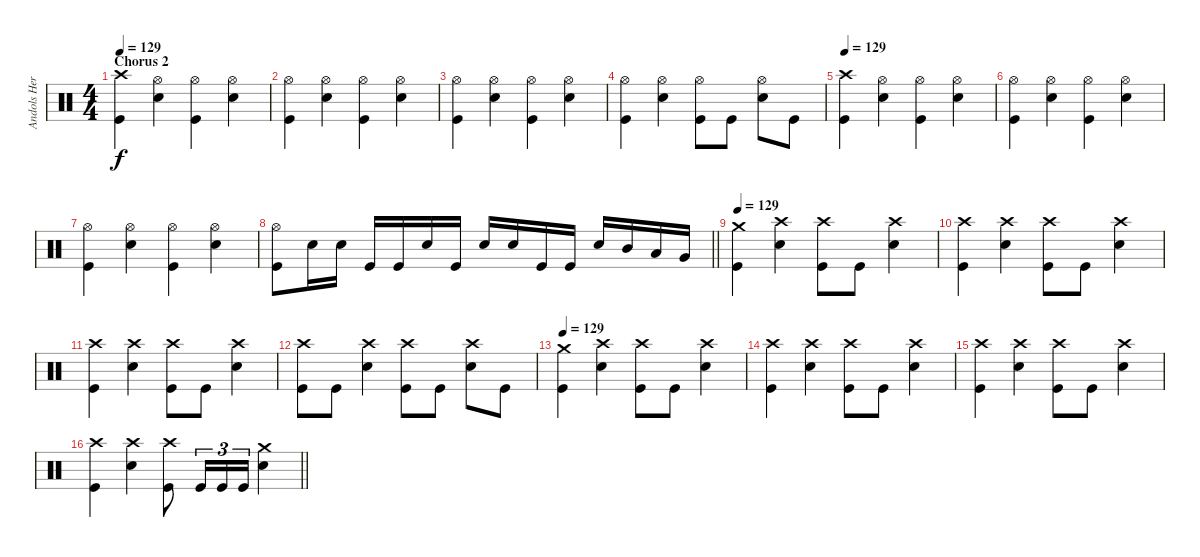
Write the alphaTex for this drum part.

\track ("Andols Herrick" "Andols Her") {instrument percussion}
\staff {score}
\articulation defaults
\ts (4 4)
\section ("" "Chorus 2")
\tempo 129
\clef neutral
\ks c
("Crash high (hit)" "Kick (hit)").4{dy f} ("Hi-Hat (open)" "Electric Snare (hit)").4 ("Hi-Hat (open)" "Kick (hit)").4 ("Hi-Hat (open)" "Electric Snare (hit)").4 |
("Hi-Hat (open)" "Kick (hit)").4 ("Hi-Hat (open)" "Electric Snare (hit)").4 ("Hi-Hat (open)" "Kick (hit)").4 ("Hi-Hat (open)" "Electric Snare (hit)").4 |
("Hi-Hat (open)" "Kick (hit)").4 ("Hi-Hat (open)" "Electric Snare (hit)").4 ("Hi-Hat (open)" "Kick (hit)").4 ("Hi-Hat (open)" "Electric Snare (hit)").4 |
("Hi-Hat (open)" "Kick (hit)").4 ("Hi-Hat (open)" "Electric Snare (hit)").4 ("Hi-Hat (open)" "Kick (hit)").8 "Kick (hit)".8 ("Hi-Hat (open)" "Electric Snare (hit)").8 "Kick (hit)".8 |
\tempo 129
("Crash high (hit)" "Kick (hit)").4 ("Hi-Hat (open)" "Electric Snare (hit)").4 ("Hi-Hat (open)" "Kick (hit)").4 ("Hi-Hat (open)" "Electric Snare (hit)").4 |
("Hi-Hat (open)" "Kick (hit)").4 ("Hi-Hat (open)" "Electric Snare (hit)").4 ("Hi-Hat (open)" "Kick (hit)").4 ("Hi-Hat (open)" "Electric Snare (hit)").4 |
("Hi-Hat (open)" "Kick (hit)").4 ("Hi-Hat (open)" "Electric Snare (hit)").4 ("Hi-Hat (open)" "Kick (hit)").4 ("Hi-Hat (open)" "Electric Snare (hit)").4 |
\barLineRight lightlight
("Hi-Hat (open)" "Kick (hit)").8 "Electric Snare (hit)".16 "Electric Snare (hit)".16 "Kick (hit)".16 "Kick (hit)".16 "Electric Snare (hit)".16 "Kick (hit)".16 "Electric Snare (hit)".16 "Electric Snare (hit)".16 "Kick (hit)".16 "Kick (hit)".16 "Electric Snare (hit)".16 "Mid Tom (hit)".16 "Low Tom (hit)".16 "Very Low Tom (hit)".16 |
\tempo 129
("Crash medium (hit)" "Kick (hit)").4 ("Crash high (hit)" "Electric Snare (hit)").4 ("Crash high (hit)" "Kick (hit)").8 "Kick (hit)".8 ("Crash high (hit)" "Electric Snare (hit)").4 |
("Crash high (hit)" "Kick (hit)").4 ("Crash high (hit)" "Electric Snare (hit)").4 ("Crash high (hit)" "Kick (hit)").8 "Kick (hit)".8 ("Crash high (hit)" "Electric Snare (hit)").4 |
("Crash high (hit)" "Kick (hit)").4 ("Crash high (hit)" "Electric Snare (hit)").4 ("Crash high (hit)" "Kick (hit)").8 "Kick (hit)".8 ("Crash high (hit)" "Electric Snare (hit)").4 |
("Crash high (hit)" "Kick (hit)").8 "Kick (hit)".8 ("Crash high (hit)" "Electric Snare (hit)").4 ("Crash high (hit)" "Kick (hit)").8 "Kick (hit)".8 ("Crash high (hit)" "Electric Snare (hit)").8 "Kick (hit)".8 |
\tempo 129
("Crash medium (hit)" "Kick (hit)").4 ("Crash high (hit)" "Electric Snare (hit)").4 ("Crash high (hit)" "Kick (hit)").8 "Kick (hit)".8 ("Crash high (hit)" "Electric Snare (hit)").4 |
("Crash high (hit)" "Kick (hit)").4 ("Crash high (hit)" "Electric Snare (hit)").4 ("Crash high (hit)" "Kick (hit)").8 "Kick (hit)".8 ("Crash high (hit)" "Electric Snare (hit)").4 |
("Crash high (hit)" "Kick (hit)").4 ("Crash high (hit)" "Electric Snare (hit)").4 ("Crash high (hit)" "Kick (hit)").8 "Kick (hit)".8 ("Crash high (hit)" "Electric Snare (hit)").4 |
\barLineRight lightlight
("Crash high (hit)" "Kick (hit)").4 ("Crash high (hit)" "Electric Snare (hit)").4 ("Crash high (hit)" "Kick (hit)").8 "Kick (hit)".16{tu (3 2)} "Kick (hit)".16{tu (3 2)} "Kick (hit)".16{tu (3 2)} ("Crash medium (hit)" "Electric Snare (hit)").4
